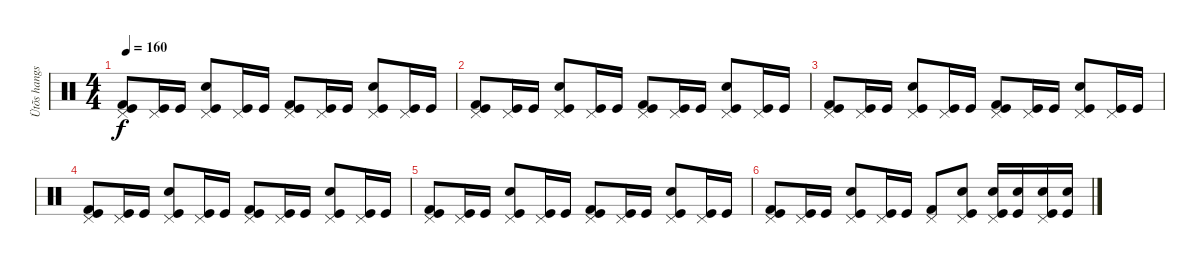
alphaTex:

\track ("Ütõs hangszer" "Ütõs hangs") {instrument percussion}
\staff {score}
\articulation defaults
\ts (4 4)
\tempo 160
\clef neutral
\ks c
("Pedal Hi-Hat (hit)" "Kick (hit) 2" "Kick (hit)").8{dy f} ("Pedal Hi-Hat (hit)" "Kick (hit)").16 "Kick (hit)".16 ("Pedal Hi-Hat (hit)" "Snare (hit) 2" "Kick (hit)").8 ("Pedal Hi-Hat (hit)" "Kick (hit)").16 "Kick (hit)".16 ("Pedal Hi-Hat (hit)" "Kick (hit) 2" "Kick (hit)").8 ("Pedal Hi-Hat (hit)" "Kick (hit)").16 "Kick (hit)".16 ("Pedal Hi-Hat (hit)" "Snare (hit) 2" "Kick (hit)").8 ("Pedal Hi-Hat (hit)" "Kick (hit)").16 "Kick (hit)".16 |
("Pedal Hi-Hat (hit)" "Kick (hit) 2" "Kick (hit)").8 ("Pedal Hi-Hat (hit)" "Kick (hit)").16 "Kick (hit)".16 ("Pedal Hi-Hat (hit)" "Snare (hit) 2" "Kick (hit)").8 ("Pedal Hi-Hat (hit)" "Kick (hit)").16 "Kick (hit)".16 ("Pedal Hi-Hat (hit)" "Kick (hit) 2" "Kick (hit)").8 ("Pedal Hi-Hat (hit)" "Kick (hit)").16 "Kick (hit)".16 ("Pedal Hi-Hat (hit)" "Snare (hit) 2" "Kick (hit)").8 ("Pedal Hi-Hat (hit)" "Kick (hit)").16 "Kick (hit)".16 |
("Pedal Hi-Hat (hit)" "Kick (hit) 2" "Kick (hit)").8 ("Pedal Hi-Hat (hit)" "Kick (hit)").16 "Kick (hit)".16 ("Pedal Hi-Hat (hit)" "Snare (hit) 2" "Kick (hit)").8 ("Pedal Hi-Hat (hit)" "Kick (hit)").16 "Kick (hit)".16 ("Pedal Hi-Hat (hit)" "Kick (hit) 2" "Kick (hit)").8 ("Pedal Hi-Hat (hit)" "Kick (hit)").16 "Kick (hit)".16 ("Pedal Hi-Hat (hit)" "Snare (hit) 2" "Kick (hit)").8 ("Pedal Hi-Hat (hit)" "Kick (hit)").16 "Kick (hit)".16 |
("Pedal Hi-Hat (hit)" "Kick (hit) 2" "Kick (hit)").8 ("Pedal Hi-Hat (hit)" "Kick (hit)").16 "Kick (hit)".16 ("Pedal Hi-Hat (hit)" "Snare (hit) 2" "Kick (hit)").8 ("Pedal Hi-Hat (hit)" "Kick (hit)").16 "Kick (hit)".16 ("Pedal Hi-Hat (hit)" "Kick (hit) 2" "Kick (hit)").8 ("Pedal Hi-Hat (hit)" "Kick (hit)").16 "Kick (hit)".16 ("Pedal Hi-Hat (hit)" "Snare (hit) 2" "Kick (hit)").8 ("Pedal Hi-Hat (hit)" "Kick (hit)").16 "Kick (hit)".16 |
("Pedal Hi-Hat (hit)" "Kick (hit) 2" "Kick (hit)").8 ("Pedal Hi-Hat (hit)" "Kick (hit)").16 "Kick (hit)".16 ("Pedal Hi-Hat (hit)" "Snare (hit) 2" "Kick (hit)").8 ("Pedal Hi-Hat (hit)" "Kick (hit)").16 "Kick (hit)".16 ("Pedal Hi-Hat (hit)" "Kick (hit) 2" "Kick (hit)").8 ("Pedal Hi-Hat (hit)" "Kick (hit)").16 "Kick (hit)".16 ("Pedal Hi-Hat (hit)" "Snare (hit) 2" "Kick (hit)").8 ("Pedal Hi-Hat (hit)" "Kick (hit)").16 "Kick (hit)".16 |
("Pedal Hi-Hat (hit)" "Kick (hit) 2" "Kick (hit)").8 ("Pedal Hi-Hat (hit)" "Kick (hit)").16 "Kick (hit)".16 ("Pedal Hi-Hat (hit)" "Snare (hit) 2" "Kick (hit)").8 ("Pedal Hi-Hat (hit)" "Kick (hit)").16 "Kick (hit)".16 ("Pedal Hi-Hat (hit)" "Kick (hit) 2").8 ("Pedal Hi-Hat (hit)" "Snare (hit) 2" "Kick (hit)").8 ("Pedal Hi-Hat (hit)" "Snare (hit) 2" "Kick (hit)").16 ("Snare (hit) 2" "Kick (hit)").16 ("Pedal Hi-Hat (hit)" "Snare (hit) 2" "Kick (hit)").16 ("Snare (hit) 2" "Kick (hit)").16
